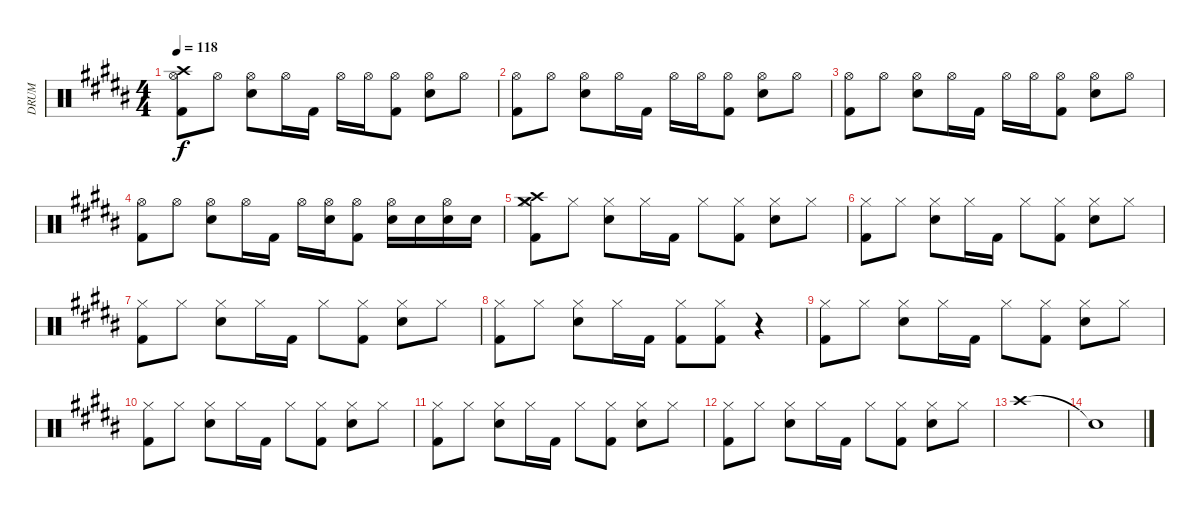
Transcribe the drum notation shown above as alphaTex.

\track ("DRUM" "DRUM") {instrument percussion}
\staff {score}
\articulation defaults
\ts (4 4)
\tempo 118
\clef neutral
\ks b
("Crash high (hit)" "Hi-Hat (open)" "Kick (hit) 2").8{dy f} "Hi-Hat (open)".8 ("Hi-Hat (open)" "Electric Snare (hit)").8 "Hi-Hat (open)".16 "Kick (hit) 2".16 "Hi-Hat (open)".16 "Hi-Hat (open)".16 ("Hi-Hat (open)" "Kick (hit) 2").8 ("Hi-Hat (open)" "Electric Snare (hit)").8 "Hi-Hat (open)".8 |
("Hi-Hat (open)" "Kick (hit) 2").8 "Hi-Hat (open)".8 ("Hi-Hat (open)" "Electric Snare (hit)").8 "Hi-Hat (open)".16 "Kick (hit) 2".16 "Hi-Hat (open)".16 "Hi-Hat (open)".16 ("Hi-Hat (open)" "Kick (hit) 2").8 ("Hi-Hat (open)" "Electric Snare (hit)").8 "Hi-Hat (open)".8 |
("Hi-Hat (open)" "Kick (hit) 2").8 "Hi-Hat (open)".8 ("Hi-Hat (open)" "Electric Snare (hit)").8 "Hi-Hat (open)".16 "Kick (hit) 2".16 "Hi-Hat (open)".16 "Hi-Hat (open)".16 ("Hi-Hat (open)" "Kick (hit) 2").8 ("Hi-Hat (open)" "Electric Snare (hit)").8 "Hi-Hat (open)".8 |
("Hi-Hat (open)" "Kick (hit) 2").8 "Hi-Hat (open)".8 ("Hi-Hat (open)" "Electric Snare (hit)").8 "Hi-Hat (open)".16 "Kick (hit) 2".16 "Hi-Hat (open)".16 ("Hi-Hat (open)" "Electric Snare (hit)").16 ("Hi-Hat (open)" "Kick (hit) 2").8 ("Hi-Hat (open)" "Electric Snare (hit)").16 "Electric Snare (hit)".16 ("Hi-Hat (open)" "Electric Snare (hit)").16 "Electric Snare (hit)".16 |
("Crash medium (hit)" "Crash high (hit)" "Hi-Hat (closed)" "Kick (hit) 2").8 "Hi-Hat (closed)".8 ("Hi-Hat (closed)" "Electric Snare (hit)").8 "Hi-Hat (closed)".16 "Kick (hit) 2".16 "Hi-Hat (closed)".8 ("Hi-Hat (closed)" "Kick (hit) 2").8 ("Hi-Hat (closed)" "Electric Snare (hit)").8 "Hi-Hat (closed)".8 |
("Hi-Hat (closed)" "Kick (hit) 2").8 "Hi-Hat (closed)".8 ("Hi-Hat (closed)" "Electric Snare (hit)").8 "Hi-Hat (closed)".16 "Kick (hit) 2".16 "Hi-Hat (closed)".8 ("Hi-Hat (closed)" "Kick (hit) 2").8 ("Hi-Hat (closed)" "Electric Snare (hit)").8 "Hi-Hat (closed)".8 |
("Hi-Hat (closed)" "Kick (hit) 2").8 "Hi-Hat (closed)".8 ("Hi-Hat (closed)" "Electric Snare (hit)").8 "Hi-Hat (closed)".16 "Kick (hit) 2".16 "Hi-Hat (closed)".8 ("Hi-Hat (closed)" "Kick (hit) 2").8 ("Hi-Hat (closed)" "Electric Snare (hit)").8 "Hi-Hat (closed)".8 |
("Hi-Hat (closed)" "Kick (hit) 2").8 "Hi-Hat (closed)".8 ("Hi-Hat (closed)" "Electric Snare (hit)").8 "Hi-Hat (closed)".16 "Kick (hit) 2".16 ("Hi-Hat (closed)" "Kick (hit) 2").8 ("Hi-Hat (closed)" "Kick (hit) 2").8 r.4 |
("Hi-Hat (closed)" "Kick (hit) 2").8 "Hi-Hat (closed)".8 ("Hi-Hat (closed)" "Electric Snare (hit)").8 "Hi-Hat (closed)".16 "Kick (hit) 2".16 "Hi-Hat (closed)".8 ("Hi-Hat (closed)" "Kick (hit) 2").8 ("Hi-Hat (closed)" "Electric Snare (hit)").8 "Hi-Hat (closed)".8 |
("Hi-Hat (closed)" "Kick (hit) 2").8 "Hi-Hat (closed)".8 ("Hi-Hat (closed)" "Electric Snare (hit)").8 "Hi-Hat (closed)".16 "Kick (hit) 2".16 "Hi-Hat (closed)".8 ("Hi-Hat (closed)" "Kick (hit) 2").8 ("Hi-Hat (closed)" "Electric Snare (hit)").8 "Hi-Hat (closed)".8 |
("Hi-Hat (closed)" "Kick (hit) 2").8 "Hi-Hat (closed)".8 ("Hi-Hat (closed)" "Electric Snare (hit)").8 "Hi-Hat (closed)".16 "Kick (hit) 2".16 "Hi-Hat (closed)".8 ("Hi-Hat (closed)" "Kick (hit) 2").8 ("Hi-Hat (closed)" "Electric Snare (hit)").8 "Hi-Hat (closed)".8 |
("Hi-Hat (closed)" "Kick (hit) 2").8 "Hi-Hat (closed)".8 ("Hi-Hat (closed)" "Electric Snare (hit)").8 "Hi-Hat (closed)".16 "Kick (hit) 2".16 "Hi-Hat (closed)".8 ("Hi-Hat (closed)" "Kick (hit) 2").8 ("Hi-Hat (closed)" "Electric Snare (hit)").8 "Hi-Hat (closed)".8 |
"Crash high (hit)".1 |
"Snare (hit)"{t}.1
